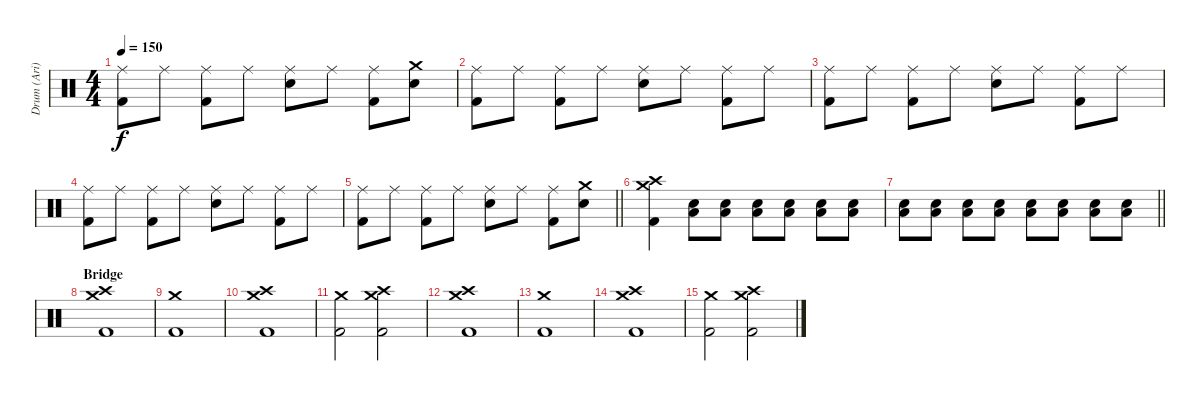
\track ("Drum (Ari)" "Drum (Ari)") {instrument percussion}
\staff {score}
\articulation defaults
\ts (4 4)
\tempo 150
\clef neutral
\ks c
("Ride (middle)" "Kick (hit) 2").8{dy f} "Ride (middle)".8 ("Ride (middle)" "Kick (hit) 2").8 "Ride (middle)".8 ("Ride (middle)" "Electric Snare (hit)").8 "Ride (middle)".8 ("Ride (middle)" "Kick (hit) 2").8 ("Crash medium (hit)" "Electric Snare (hit)").8 |
("Ride (middle)" "Kick (hit) 2").8 "Ride (middle)".8 ("Ride (middle)" "Kick (hit) 2").8 "Ride (middle)".8 ("Ride (middle)" "Electric Snare (hit)").8 "Ride (middle)".8 ("Ride (middle)" "Kick (hit) 2").8 "Ride (middle)".8 |
("Ride (middle)" "Kick (hit) 2").8 "Ride (middle)".8 ("Ride (middle)" "Kick (hit) 2").8 "Ride (middle)".8 ("Ride (middle)" "Electric Snare (hit)").8 "Ride (middle)".8 ("Ride (middle)" "Kick (hit) 2").8 "Ride (middle)".8 |
("Ride (middle)" "Kick (hit) 2").8 "Ride (middle)".8 ("Ride (middle)" "Kick (hit) 2").8 "Ride (middle)".8 ("Ride (middle)" "Electric Snare (hit)").8 "Ride (middle)".8 ("Ride (middle)" "Kick (hit) 2").8 "Ride (middle)".8 |
\barLineRight lightlight
("Ride (middle)" "Kick (hit) 2").8 "Ride (middle)".8 ("Ride (middle)" "Kick (hit) 2").8 "Ride (middle)".8 ("Ride (middle)" "Electric Snare (hit)").8 "Ride (middle)".8 ("Ride (middle)" "Kick (hit) 2").8 ("Crash medium (hit)" "Electric Snare (hit)").8 |
\section ("" "")
("Crash high (hit)" "Crash medium (hit)" "Kick (hit) 2").4 ("Electric Snare (hit)" "Low Floor Tom (hit)").8 ("Electric Snare (hit)" "Low Floor Tom (hit)").8 ("Electric Snare (hit)" "Low Floor Tom (hit)").8 ("Electric Snare (hit)" "Low Floor Tom (hit)").8 ("Electric Snare (hit)" "Low Floor Tom (hit)").8 ("Electric Snare (hit)" "Low Floor Tom (hit)").8 |
\barLineRight lightlight
("Electric Snare (hit)" "Low Floor Tom (hit)").8 ("Electric Snare (hit)" "Low Floor Tom (hit)").8 ("Electric Snare (hit)" "Low Floor Tom (hit)").8 ("Electric Snare (hit)" "Low Floor Tom (hit)").8 ("Electric Snare (hit)" "Low Floor Tom (hit)").8 ("Electric Snare (hit)" "Low Floor Tom (hit)").8 ("Electric Snare (hit)" "Low Floor Tom (hit)").8 ("Electric Snare (hit)" "Low Floor Tom (hit)").8 |
\section ("" "Bridge")
("Crash high (hit)" "Crash medium (hit)" "Kick (hit) 2").1 |
("Crash medium (hit)" "Kick (hit) 2").1 |
("Crash high (hit)" "Crash medium (hit)" "Kick (hit) 2").1 |
("Crash medium (hit)" "Kick (hit) 2").2 ("Crash high (hit)" "Crash medium (hit)" "Kick (hit) 2").2 |
("Crash high (hit)" "Crash medium (hit)" "Kick (hit) 2").1 |
("Crash medium (hit)" "Kick (hit) 2").1 |
("Crash high (hit)" "Crash medium (hit)" "Kick (hit) 2").1 |
("Crash medium (hit)" "Kick (hit) 2").2 ("Crash high (hit)" "Crash medium (hit)" "Kick (hit) 2").2
